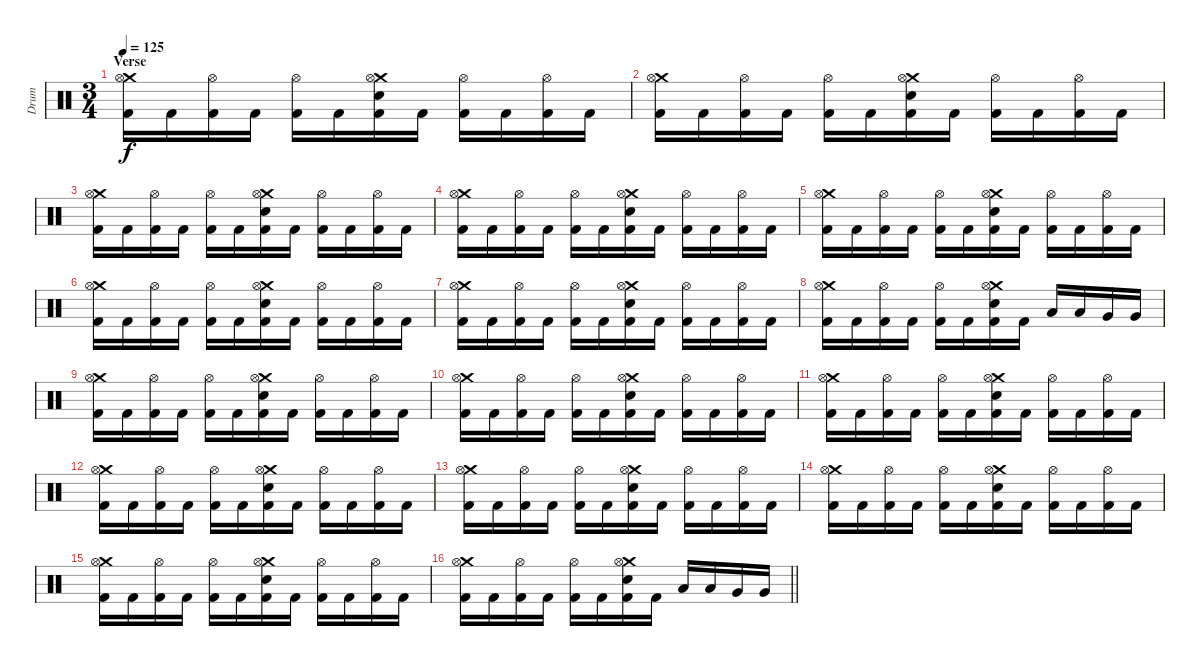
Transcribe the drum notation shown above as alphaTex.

\track ("Drum" "Drum") {instrument percussion}
\staff {score}
\articulation defaults
\ts (3 4)
\section ("" "Verse")
\tempo 125
\clef neutral
\ks c
("Crash medium (hit)" "Hi-Hat (open)" "Kick (hit) 2").16{dy f} "Kick (hit) 2".16 ("Hi-Hat (open)" "Kick (hit) 2").16 "Kick (hit) 2".16 ("Hi-Hat (open)" "Kick (hit) 2").16 "Kick (hit) 2".16 ("Crash medium (hit)" "Hi-Hat (open)" "Electric Snare (hit)" "Kick (hit) 2").16 "Kick (hit) 2".16 ("Hi-Hat (open)" "Kick (hit) 2").16 "Kick (hit) 2".16 ("Hi-Hat (open)" "Kick (hit) 2").16 "Kick (hit) 2".16 |
("Crash medium (hit)" "Hi-Hat (open)" "Kick (hit) 2").16 "Kick (hit) 2".16 ("Hi-Hat (open)" "Kick (hit) 2").16 "Kick (hit) 2".16 ("Hi-Hat (open)" "Kick (hit) 2").16 "Kick (hit) 2".16 ("Crash medium (hit)" "Hi-Hat (open)" "Electric Snare (hit)" "Kick (hit) 2").16 "Kick (hit) 2".16 ("Hi-Hat (open)" "Kick (hit) 2").16 "Kick (hit) 2".16 ("Hi-Hat (open)" "Kick (hit) 2").16 "Kick (hit) 2".16 |
("Crash medium (hit)" "Hi-Hat (open)" "Kick (hit) 2").16 "Kick (hit) 2".16 ("Hi-Hat (open)" "Kick (hit) 2").16 "Kick (hit) 2".16 ("Hi-Hat (open)" "Kick (hit) 2").16 "Kick (hit) 2".16 ("Crash medium (hit)" "Hi-Hat (open)" "Electric Snare (hit)" "Kick (hit) 2").16 "Kick (hit) 2".16 ("Hi-Hat (open)" "Kick (hit) 2").16 "Kick (hit) 2".16 ("Hi-Hat (open)" "Kick (hit) 2").16 "Kick (hit) 2".16 |
("Crash medium (hit)" "Hi-Hat (open)" "Kick (hit) 2").16 "Kick (hit) 2".16 ("Hi-Hat (open)" "Kick (hit) 2").16 "Kick (hit) 2".16 ("Hi-Hat (open)" "Kick (hit) 2").16 "Kick (hit) 2".16 ("Crash medium (hit)" "Hi-Hat (open)" "Electric Snare (hit)" "Kick (hit) 2").16 "Kick (hit) 2".16 ("Hi-Hat (open)" "Kick (hit) 2").16 "Kick (hit) 2".16 ("Hi-Hat (open)" "Kick (hit) 2").16 "Kick (hit) 2".16 |
("Crash medium (hit)" "Hi-Hat (open)" "Kick (hit) 2").16 "Kick (hit) 2".16 ("Hi-Hat (open)" "Kick (hit) 2").16 "Kick (hit) 2".16 ("Hi-Hat (open)" "Kick (hit) 2").16 "Kick (hit) 2".16 ("Crash medium (hit)" "Hi-Hat (open)" "Electric Snare (hit)" "Kick (hit) 2").16 "Kick (hit) 2".16 ("Hi-Hat (open)" "Kick (hit) 2").16 "Kick (hit) 2".16 ("Hi-Hat (open)" "Kick (hit) 2").16 "Kick (hit) 2".16 |
("Crash medium (hit)" "Hi-Hat (open)" "Kick (hit) 2").16 "Kick (hit) 2".16 ("Hi-Hat (open)" "Kick (hit) 2").16 "Kick (hit) 2".16 ("Hi-Hat (open)" "Kick (hit) 2").16 "Kick (hit) 2".16 ("Crash medium (hit)" "Hi-Hat (open)" "Electric Snare (hit)" "Kick (hit) 2").16 "Kick (hit) 2".16 ("Hi-Hat (open)" "Kick (hit) 2").16 "Kick (hit) 2".16 ("Hi-Hat (open)" "Kick (hit) 2").16 "Kick (hit) 2".16 |
("Crash medium (hit)" "Hi-Hat (open)" "Kick (hit) 2").16 "Kick (hit) 2".16 ("Hi-Hat (open)" "Kick (hit) 2").16 "Kick (hit) 2".16 ("Hi-Hat (open)" "Kick (hit) 2").16 "Kick (hit) 2".16 ("Crash medium (hit)" "Hi-Hat (open)" "Electric Snare (hit)" "Kick (hit) 2").16 "Kick (hit) 2".16 ("Hi-Hat (open)" "Kick (hit) 2").16 "Kick (hit) 2".16 ("Hi-Hat (open)" "Kick (hit) 2").16 "Kick (hit) 2".16 |
("Crash medium (hit)" "Hi-Hat (open)" "Kick (hit) 2").16 "Kick (hit) 2".16 ("Hi-Hat (open)" "Kick (hit) 2").16 "Kick (hit) 2".16 ("Hi-Hat (open)" "Kick (hit) 2").16 "Kick (hit) 2".16 ("Crash medium (hit)" "Hi-Hat (open)" "Electric Snare (hit)" "Kick (hit) 2").16 "Kick (hit) 2".16 "Low Tom (hit)".16 "Low Tom (hit)".16 "Very Low Tom (hit)".16 "Very Low Tom (hit)".16 |
("Crash medium (hit)" "Hi-Hat (open)" "Kick (hit) 2").16 "Kick (hit) 2".16 ("Hi-Hat (open)" "Kick (hit) 2").16 "Kick (hit) 2".16 ("Hi-Hat (open)" "Kick (hit) 2").16 "Kick (hit) 2".16 ("Crash medium (hit)" "Hi-Hat (open)" "Electric Snare (hit)" "Kick (hit) 2").16 "Kick (hit) 2".16 ("Hi-Hat (open)" "Kick (hit) 2").16 "Kick (hit) 2".16 ("Hi-Hat (open)" "Kick (hit) 2").16 "Kick (hit) 2".16 |
("Crash medium (hit)" "Hi-Hat (open)" "Kick (hit) 2").16 "Kick (hit) 2".16 ("Hi-Hat (open)" "Kick (hit) 2").16 "Kick (hit) 2".16 ("Hi-Hat (open)" "Kick (hit) 2").16 "Kick (hit) 2".16 ("Crash medium (hit)" "Hi-Hat (open)" "Electric Snare (hit)" "Kick (hit) 2").16 "Kick (hit) 2".16 ("Hi-Hat (open)" "Kick (hit) 2").16 "Kick (hit) 2".16 ("Hi-Hat (open)" "Kick (hit) 2").16 "Kick (hit) 2".16 |
("Crash medium (hit)" "Hi-Hat (open)" "Kick (hit) 2").16 "Kick (hit) 2".16 ("Hi-Hat (open)" "Kick (hit) 2").16 "Kick (hit) 2".16 ("Hi-Hat (open)" "Kick (hit) 2").16 "Kick (hit) 2".16 ("Crash medium (hit)" "Hi-Hat (open)" "Electric Snare (hit)" "Kick (hit) 2").16 "Kick (hit) 2".16 ("Hi-Hat (open)" "Kick (hit) 2").16 "Kick (hit) 2".16 ("Hi-Hat (open)" "Kick (hit) 2").16 "Kick (hit) 2".16 |
("Crash medium (hit)" "Hi-Hat (open)" "Kick (hit) 2").16 "Kick (hit) 2".16 ("Hi-Hat (open)" "Kick (hit) 2").16 "Kick (hit) 2".16 ("Hi-Hat (open)" "Kick (hit) 2").16 "Kick (hit) 2".16 ("Crash medium (hit)" "Hi-Hat (open)" "Electric Snare (hit)" "Kick (hit) 2").16 "Kick (hit) 2".16 ("Hi-Hat (open)" "Kick (hit) 2").16 "Kick (hit) 2".16 ("Hi-Hat (open)" "Kick (hit) 2").16 "Kick (hit) 2".16 |
("Crash medium (hit)" "Hi-Hat (open)" "Kick (hit) 2").16 "Kick (hit) 2".16 ("Hi-Hat (open)" "Kick (hit) 2").16 "Kick (hit) 2".16 ("Hi-Hat (open)" "Kick (hit) 2").16 "Kick (hit) 2".16 ("Crash medium (hit)" "Hi-Hat (open)" "Electric Snare (hit)" "Kick (hit) 2").16 "Kick (hit) 2".16 ("Hi-Hat (open)" "Kick (hit) 2").16 "Kick (hit) 2".16 ("Hi-Hat (open)" "Kick (hit) 2").16 "Kick (hit) 2".16 |
("Crash medium (hit)" "Hi-Hat (open)" "Kick (hit) 2").16 "Kick (hit) 2".16 ("Hi-Hat (open)" "Kick (hit) 2").16 "Kick (hit) 2".16 ("Hi-Hat (open)" "Kick (hit) 2").16 "Kick (hit) 2".16 ("Crash medium (hit)" "Hi-Hat (open)" "Electric Snare (hit)" "Kick (hit) 2").16 "Kick (hit) 2".16 ("Hi-Hat (open)" "Kick (hit) 2").16 "Kick (hit) 2".16 ("Hi-Hat (open)" "Kick (hit) 2").16 "Kick (hit) 2".16 |
("Crash medium (hit)" "Hi-Hat (open)" "Kick (hit) 2").16 "Kick (hit) 2".16 ("Hi-Hat (open)" "Kick (hit) 2").16 "Kick (hit) 2".16 ("Hi-Hat (open)" "Kick (hit) 2").16 "Kick (hit) 2".16 ("Crash medium (hit)" "Hi-Hat (open)" "Electric Snare (hit)" "Kick (hit) 2").16 "Kick (hit) 2".16 ("Hi-Hat (open)" "Kick (hit) 2").16 "Kick (hit) 2".16 ("Hi-Hat (open)" "Kick (hit) 2").16 "Kick (hit) 2".16 |
\barLineRight lightlight
("Crash medium (hit)" "Hi-Hat (open)" "Kick (hit) 2").16 "Kick (hit) 2".16 ("Hi-Hat (open)" "Kick (hit) 2").16 "Kick (hit) 2".16 ("Hi-Hat (open)" "Kick (hit) 2").16 "Kick (hit) 2".16 ("Crash medium (hit)" "Hi-Hat (open)" "Electric Snare (hit)" "Kick (hit) 2").16 "Kick (hit) 2".16 "Low Tom (hit)".16 "Low Tom (hit)".16 "Very Low Tom (hit)".16 "Very Low Tom (hit)".16
